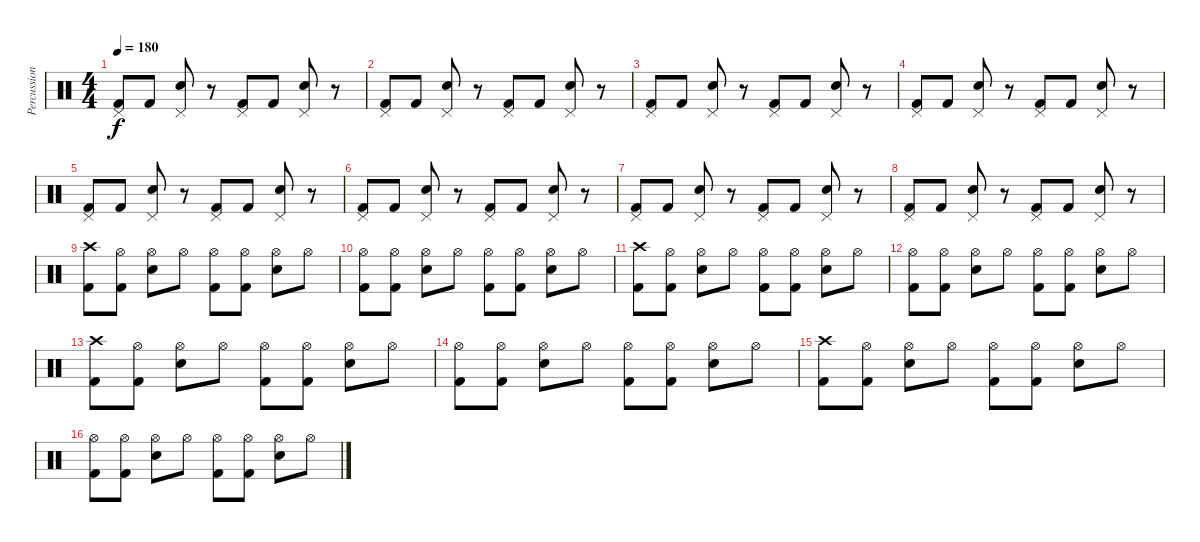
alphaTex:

\track ("Percussion" "Percussion") {instrument percussion}
\staff {score}
\articulation defaults
\ts (4 4)
\tempo 180
\clef neutral
\ks c
("Pedal Hi-Hat (hit)" "Kick (hit) 2").8{dy f} "Kick (hit) 2".8 ("Pedal Hi-Hat (hit)" "Electric Snare (hit)").8 r.8 ("Pedal Hi-Hat (hit)" "Kick (hit) 2").8 "Kick (hit) 2".8 ("Pedal Hi-Hat (hit)" "Electric Snare (hit)").8 r.8 |
("Pedal Hi-Hat (hit)" "Kick (hit) 2").8 "Kick (hit) 2".8 ("Pedal Hi-Hat (hit)" "Electric Snare (hit)").8 r.8 ("Pedal Hi-Hat (hit)" "Kick (hit) 2").8 "Kick (hit) 2".8 ("Pedal Hi-Hat (hit)" "Electric Snare (hit)").8 r.8 |
("Pedal Hi-Hat (hit)" "Kick (hit) 2").8 "Kick (hit) 2".8 ("Pedal Hi-Hat (hit)" "Electric Snare (hit)").8 r.8 ("Pedal Hi-Hat (hit)" "Kick (hit) 2").8 "Kick (hit) 2".8 ("Pedal Hi-Hat (hit)" "Electric Snare (hit)").8 r.8 |
("Pedal Hi-Hat (hit)" "Kick (hit) 2").8 "Kick (hit) 2".8 ("Pedal Hi-Hat (hit)" "Electric Snare (hit)").8 r.8 ("Pedal Hi-Hat (hit)" "Kick (hit) 2").8 "Kick (hit) 2".8 ("Pedal Hi-Hat (hit)" "Electric Snare (hit)").8 r.8 |
("Pedal Hi-Hat (hit)" "Kick (hit) 2").8 "Kick (hit) 2".8 ("Pedal Hi-Hat (hit)" "Electric Snare (hit)").8 r.8 ("Pedal Hi-Hat (hit)" "Kick (hit) 2").8 "Kick (hit) 2".8 ("Pedal Hi-Hat (hit)" "Electric Snare (hit)").8 r.8 |
("Pedal Hi-Hat (hit)" "Kick (hit) 2").8 "Kick (hit) 2".8 ("Pedal Hi-Hat (hit)" "Electric Snare (hit)").8 r.8 ("Pedal Hi-Hat (hit)" "Kick (hit) 2").8 "Kick (hit) 2".8 ("Pedal Hi-Hat (hit)" "Electric Snare (hit)").8 r.8 |
("Pedal Hi-Hat (hit)" "Kick (hit) 2").8 "Kick (hit) 2".8 ("Pedal Hi-Hat (hit)" "Electric Snare (hit)").8 r.8 ("Pedal Hi-Hat (hit)" "Kick (hit) 2").8 "Kick (hit) 2".8 ("Pedal Hi-Hat (hit)" "Electric Snare (hit)").8 r.8 |
("Pedal Hi-Hat (hit)" "Kick (hit) 2").8 "Kick (hit) 2".8 ("Pedal Hi-Hat (hit)" "Electric Snare (hit)").8 r.8 ("Pedal Hi-Hat (hit)" "Kick (hit) 2").8 "Kick (hit) 2".8 ("Pedal Hi-Hat (hit)" "Electric Snare (hit)").8 r.8 |
("Crash high (hit)" "Kick (hit) 2").8 ("Hi-Hat (open)" "Kick (hit) 2").8 ("Hi-Hat (open)" "Electric Snare (hit)").8 "Hi-Hat (open)".8 ("Hi-Hat (open)" "Kick (hit) 2").8 ("Hi-Hat (open)" "Kick (hit) 2").8 ("Hi-Hat (open)" "Electric Snare (hit)").8 "Hi-Hat (open)".8 |
("Hi-Hat (open)" "Kick (hit) 2").8 ("Hi-Hat (open)" "Kick (hit) 2").8 ("Hi-Hat (open)" "Electric Snare (hit)").8 "Hi-Hat (open)".8 ("Hi-Hat (open)" "Kick (hit) 2").8 ("Hi-Hat (open)" "Kick (hit) 2").8 ("Hi-Hat (open)" "Electric Snare (hit)").8 "Hi-Hat (open)".8 |
("Crash high (hit)" "Kick (hit) 2").8 ("Hi-Hat (open)" "Kick (hit) 2").8 ("Hi-Hat (open)" "Electric Snare (hit)").8 "Hi-Hat (open)".8 ("Hi-Hat (open)" "Kick (hit) 2").8 ("Hi-Hat (open)" "Kick (hit) 2").8 ("Hi-Hat (open)" "Electric Snare (hit)").8 "Hi-Hat (open)".8 |
("Hi-Hat (open)" "Kick (hit) 2").8 ("Hi-Hat (open)" "Kick (hit) 2").8 ("Hi-Hat (open)" "Electric Snare (hit)").8 "Hi-Hat (open)".8 ("Hi-Hat (open)" "Kick (hit) 2").8 ("Hi-Hat (open)" "Kick (hit) 2").8 ("Hi-Hat (open)" "Electric Snare (hit)").8 "Hi-Hat (open)".8 |
("Crash high (hit)" "Kick (hit) 2").8 ("Hi-Hat (open)" "Kick (hit) 2").8 ("Hi-Hat (open)" "Electric Snare (hit)").8 "Hi-Hat (open)".8 ("Hi-Hat (open)" "Kick (hit) 2").8 ("Hi-Hat (open)" "Kick (hit) 2").8 ("Hi-Hat (open)" "Electric Snare (hit)").8 "Hi-Hat (open)".8 |
("Hi-Hat (open)" "Kick (hit) 2").8 ("Hi-Hat (open)" "Kick (hit) 2").8 ("Hi-Hat (open)" "Electric Snare (hit)").8 "Hi-Hat (open)".8 ("Hi-Hat (open)" "Kick (hit) 2").8 ("Hi-Hat (open)" "Kick (hit) 2").8 ("Hi-Hat (open)" "Electric Snare (hit)").8 "Hi-Hat (open)".8 |
("Crash high (hit)" "Kick (hit) 2").8 ("Hi-Hat (open)" "Kick (hit) 2").8 ("Hi-Hat (open)" "Electric Snare (hit)").8 "Hi-Hat (open)".8 ("Hi-Hat (open)" "Kick (hit) 2").8 ("Hi-Hat (open)" "Kick (hit) 2").8 ("Hi-Hat (open)" "Electric Snare (hit)").8 "Hi-Hat (open)".8 |
("Hi-Hat (open)" "Kick (hit) 2").8 ("Hi-Hat (open)" "Kick (hit) 2").8 ("Hi-Hat (open)" "Electric Snare (hit)").8 "Hi-Hat (open)".8 ("Hi-Hat (open)" "Kick (hit) 2").8 ("Hi-Hat (open)" "Kick (hit) 2").8 ("Hi-Hat (open)" "Electric Snare (hit)").8 "Hi-Hat (open)".8
